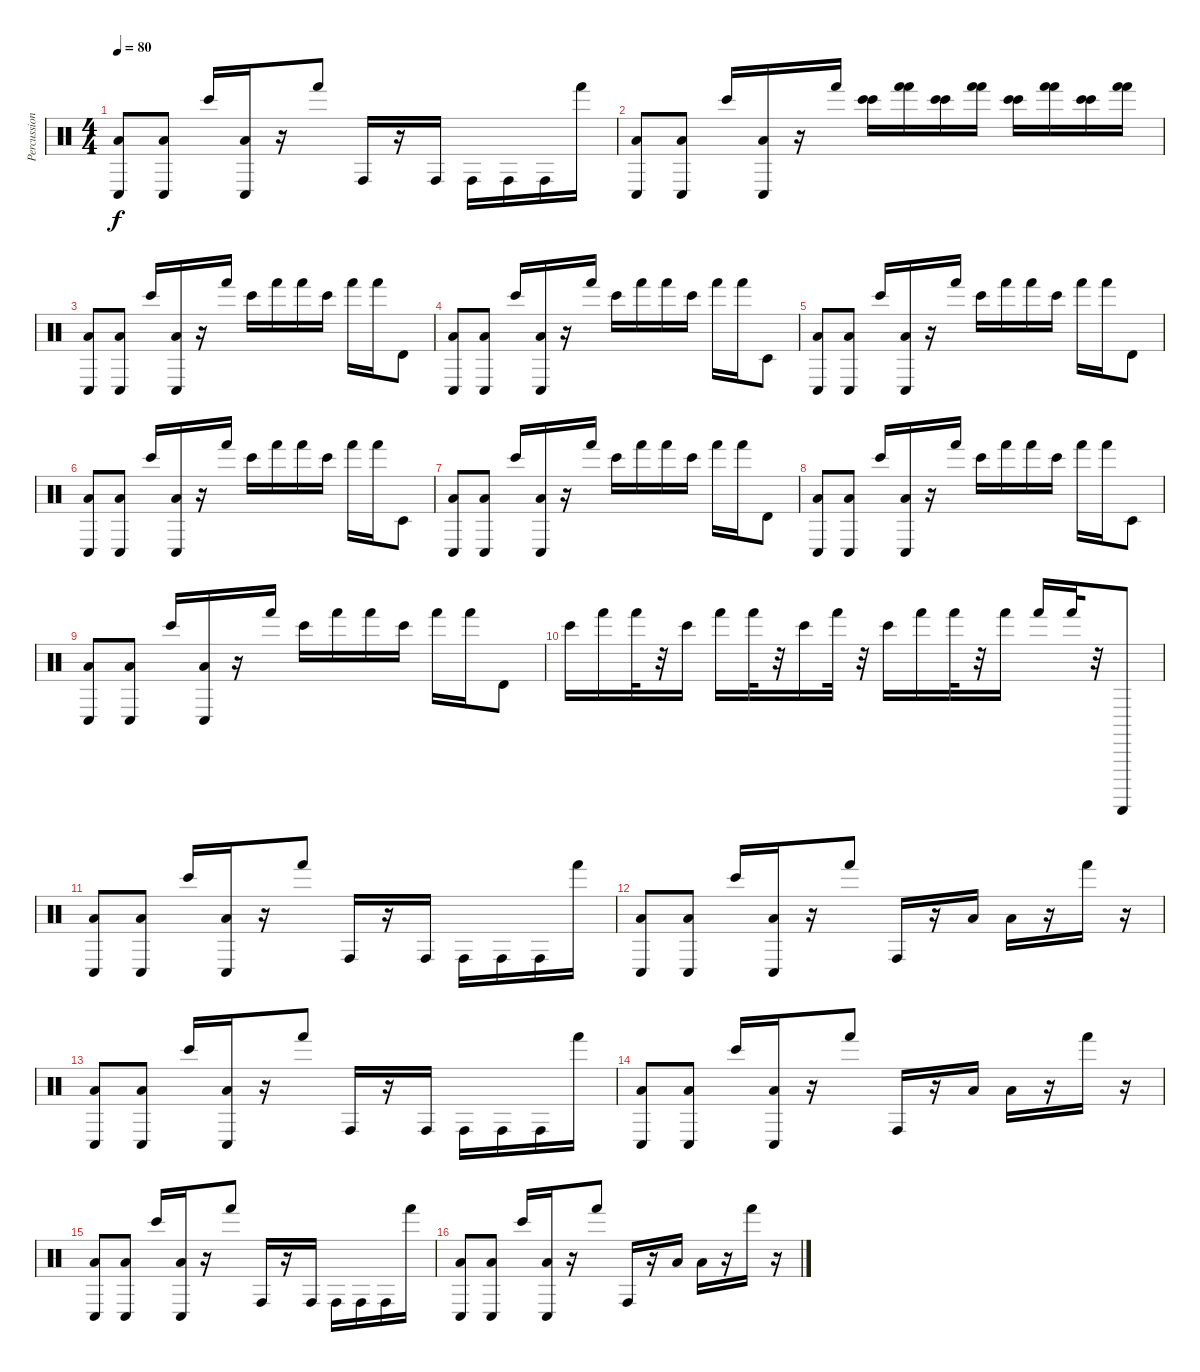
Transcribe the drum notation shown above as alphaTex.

\track ("Percussion" "Percussion") {instrument percussion}
\staff {score}
\articulation defaults
\ts (4 4)
\tempo 80
\clef neutral
\ks c
("Low Tom (hit)" "Conga low (hit)").8{dy f} ("Low Tom (hit)" "Conga low (hit)").8 "Bongo High (hit)".16 ("Low Tom (hit)" "Conga low (hit)").16 r.16 "Hand (hit)".8 "Conga high (hit)".16 r.16 "Conga high (hit)".16 "Conga high (hit)".16 "Conga high (hit)".16 "Conga high (hit)".16 "Hand (hit)".16 |
("Low Tom (hit)" "Conga low (hit)").8 ("Low Tom (hit)" "Conga low (hit)").8 "Bongo High (hit)".16 ("Low Tom (hit)" "Conga low (hit)").16 r.16 "Hand (hit)".16 ("Bongo High (hit)" "Bongo High (hit)").16 ("Hand (hit)" "Hand (hit)").16 ("Bongo High (hit)" "Bongo High (hit)").16 ("Hand (hit)" "Hand (hit)").16 ("Bongo High (hit)" "Bongo High (hit)").16 ("Hand (hit)" "Hand (hit)").16 ("Bongo High (hit)" "Bongo High (hit)").16 ("Hand (hit)" "Hand (hit)").16 |
("Low Tom (hit)" "Conga low (hit)").8 ("Low Tom (hit)" "Conga low (hit)").8 "Bongo High (hit)".16 ("Low Tom (hit)" "Conga low (hit)").16 r.16 "Hand (hit)".16 "Bongo High (hit)".16 "Hand (hit)".16 "Hand (hit)".16 "Bongo High (hit)".16 "Hand (hit)".16 "Hand (hit)".16 "Timbale high (hit)".8 |
("Low Tom (hit)" "Conga low (hit)").8 ("Low Tom (hit)" "Conga low (hit)").8 "Bongo High (hit)".16 ("Low Tom (hit)" "Conga low (hit)").16 r.16 "Hand (hit)".16 "Bongo High (hit)".16 "Hand (hit)".16 "Hand (hit)".16 "Bongo High (hit)".16 "Hand (hit)".16 "Hand (hit)".16 "Timbale low (hit)".8 |
("Low Tom (hit)" "Conga low (hit)").8 ("Low Tom (hit)" "Conga low (hit)").8 "Bongo High (hit)".16 ("Low Tom (hit)" "Conga low (hit)").16 r.16 "Hand (hit)".16 "Bongo High (hit)".16 "Hand (hit)".16 "Hand (hit)".16 "Bongo High (hit)".16 "Hand (hit)".16 "Hand (hit)".16 "Timbale high (hit)".8 |
("Low Tom (hit)" "Conga low (hit)").8 ("Low Tom (hit)" "Conga low (hit)").8 "Bongo High (hit)".16 ("Low Tom (hit)" "Conga low (hit)").16 r.16 "Hand (hit)".16 "Bongo High (hit)".16 "Hand (hit)".16 "Hand (hit)".16 "Bongo High (hit)".16 "Hand (hit)".16 "Hand (hit)".16 "Timbale low (hit)".8 |
("Low Tom (hit)" "Conga low (hit)").8 ("Low Tom (hit)" "Conga low (hit)").8 "Bongo High (hit)".16 ("Low Tom (hit)" "Conga low (hit)").16 r.16 "Hand (hit)".16 "Bongo High (hit)".16 "Hand (hit)".16 "Hand (hit)".16 "Bongo High (hit)".16 "Hand (hit)".16 "Hand (hit)".16 "Timbale high (hit)".8 |
("Low Tom (hit)" "Conga low (hit)").8 ("Low Tom (hit)" "Conga low (hit)").8 "Bongo High (hit)".16 ("Low Tom (hit)" "Conga low (hit)").16 r.16 "Hand (hit)".16 "Bongo High (hit)".16 "Hand (hit)".16 "Hand (hit)".16 "Bongo High (hit)".16 "Hand (hit)".16 "Hand (hit)".16 "Timbale low (hit)".8 |
("Low Tom (hit)" "Conga low (hit)").8 ("Low Tom (hit)" "Conga low (hit)").8 "Bongo High (hit)".16 ("Low Tom (hit)" "Conga low (hit)").16 r.16 "Hand (hit)".16 "Bongo High (hit)".16 "Hand (hit)".16 "Hand (hit)".16 "Bongo High (hit)".16 "Hand (hit)".16 "Hand (hit)".16 "Timbale high (hit)".8 |
"Bongo High (hit)".16 "Hand (hit)".16 "Hand (hit)".32 r.32 "Bongo High (hit)".16 "Hand (hit)".16 "Hand (hit)".32 r.32 "Bongo High (hit)".16 "Hand (hit)".32 r.32 "Bongo High (hit)".16 "Hand (hit)".16 "Hand (hit)".32 r.32 "Hand (hit)".16 "Hand (hit)".16 "Hand (hit)".32 r.32 "Guiro (scrap-return)".8 |
("Low Tom (hit)" "Conga low (hit)").8 ("Low Tom (hit)" "Conga low (hit)").8 "Bongo High (hit)".16 ("Low Tom (hit)" "Conga low (hit)").16 r.16 "Hand (hit)".8 "Conga high (hit)".16 r.16 "Conga high (hit)".16 "Conga high (hit)".16 "Conga high (hit)".16 "Conga high (hit)".16 "Hand (hit)".16 |
("Low Tom (hit)" "Conga low (hit)").8 ("Low Tom (hit)" "Conga low (hit)").8 "Bongo High (hit)".16 ("Low Tom (hit)" "Conga low (hit)").16 r.16 "Hand (hit)".8 "Conga high (hit)".16 r.16 "Low Tom (hit)".16 "Low Tom (hit)".16 r.16 "Hand (hit)".16 r.16 |
("Low Tom (hit)" "Conga low (hit)").8 ("Low Tom (hit)" "Conga low (hit)").8 "Bongo High (hit)".16 ("Low Tom (hit)" "Conga low (hit)").16 r.16 "Hand (hit)".8 "Conga high (hit)".16 r.16 "Conga high (hit)".16 "Conga high (hit)".16 "Conga high (hit)".16 "Conga high (hit)".16 "Hand (hit)".16 |
("Low Tom (hit)" "Conga low (hit)").8 ("Low Tom (hit)" "Conga low (hit)").8 "Bongo High (hit)".16 ("Low Tom (hit)" "Conga low (hit)").16 r.16 "Hand (hit)".8 "Conga high (hit)".16 r.16 "Low Tom (hit)".16 "Low Tom (hit)".16 r.16 "Hand (hit)".16 r.16 |
("Low Tom (hit)" "Conga low (hit)").8 ("Low Tom (hit)" "Conga low (hit)").8 "Bongo High (hit)".16 ("Low Tom (hit)" "Conga low (hit)").16 r.16 "Hand (hit)".8 "Conga high (hit)".16 r.16 "Conga high (hit)".16 "Conga high (hit)".16 "Conga high (hit)".16 "Conga high (hit)".16 "Hand (hit)".16 |
("Low Tom (hit)" "Conga low (hit)").8 ("Low Tom (hit)" "Conga low (hit)").8 "Bongo High (hit)".16 ("Low Tom (hit)" "Conga low (hit)").16 r.16 "Hand (hit)".8 "Conga high (hit)".16 r.16 "Low Tom (hit)".16 "Low Tom (hit)".16 r.16 "Hand (hit)".16 r.16
